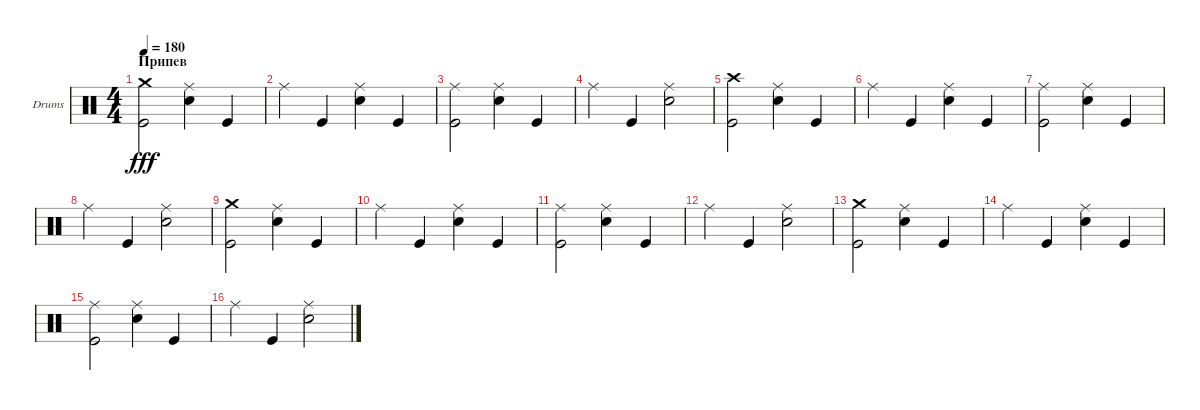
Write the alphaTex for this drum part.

\defaultSystemsLayout 4
\bracketExtendMode groupsimilarinstruments
\firstSystemTrackNameOrientation horizontal
\otherSystemsTrackNameOrientation horizontal
\track ("Барабаны" "Drums") {instrument percussion}
\staff {score}
\articulation defaults
\ts (4 4)
\section ("" "Припев")
\tempo 180
\clef neutral
\scale
0.333333
\ks c
("Crash medium (hit)" "Kick (hit)").2{dy fff} ("Ride (middle)" "Snare (hit) 2").4 "Kick (hit)".4 |
\scale
0.333333 "Ride (middle)".4 "Kick (hit)".4 ("Ride (middle)" "Snare (hit) 2").4 "Kick (hit)".4 |
\scale
0.333333 ("Ride (middle)" "Kick (hit)").2 ("Ride (middle)" "Snare (hit) 2").4 "Kick (hit)".4 |
\scale
0.333333 "Ride (middle)".4 "Kick (hit)".4 ("Ride (middle)" "Snare (hit) 2").2 |
\scale
0.333333 ("Crash high (hit)" "Kick (hit)").2 ("Ride (middle)" "Snare (hit) 2").4 "Kick (hit)".4 |
\scale
0.333333 "Ride (middle)".4 "Kick (hit)".4 ("Ride (middle)" "Snare (hit) 2").4 "Kick (hit)".4 |
\scale
0.333333 ("Ride (middle)" "Kick (hit)").2 ("Ride (middle)" "Snare (hit) 2").4 "Kick (hit)".4 |
\scale
0.333333 "Ride (middle)".4 "Kick (hit)".4 ("Ride (middle)" "Snare (hit) 2").2 |
\scale
0.333333 ("Crash medium (hit)" "Kick (hit)").2 ("Ride (middle)" "Snare (hit) 2").4 "Kick (hit)".4 |
\scale
0.333333 "Ride (middle)".4 "Kick (hit)".4 ("Ride (middle)" "Snare (hit) 2").4 "Kick (hit)".4 |
\scale
0.333333 ("Ride (middle)" "Kick (hit)").2 ("Ride (middle)" "Snare (hit) 2").4 "Kick (hit)".4 |
\scale
0.333333 "Ride (middle)".4 "Kick (hit)".4 ("Ride (middle)" "Snare (hit) 2").2 |
\scale
0.333333 ("Crash medium (hit)" "Kick (hit)").2 ("Ride (middle)" "Snare (hit) 2").4 "Kick (hit)".4 |
\scale
0.333333 "Ride (middle)".4 "Kick (hit)".4 ("Ride (middle)" "Snare (hit) 2").4 "Kick (hit)".4 |
\scale
0.333333 ("Ride (middle)" "Kick (hit)").2 ("Ride (middle)" "Snare (hit) 2").4 "Kick (hit)".4 |
\scale
0.333333 "Ride (middle)".4 "Kick (hit)".4 ("Ride (middle)" "Snare (hit) 2").2
